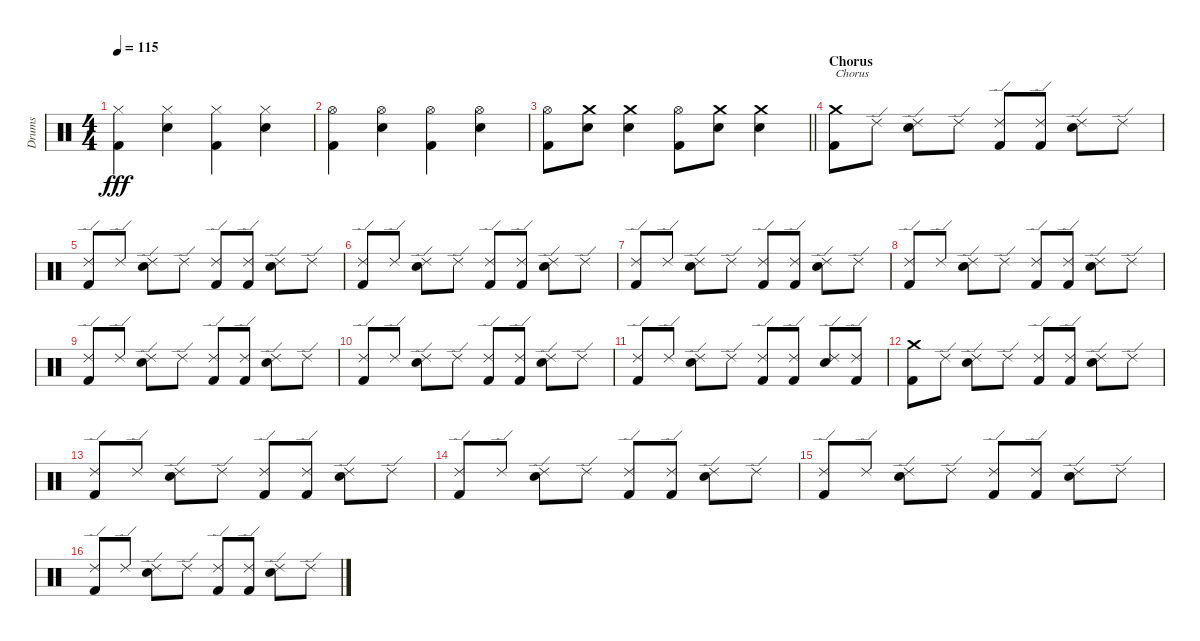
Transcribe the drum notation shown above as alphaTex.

\track ("Drums" "Drums") {instrument percussion}
\staff {score}
\articulation defaults
\ts (4 4)
\tempo 115
\clef neutral
\ks c
("Hi-Hat (closed)" "Kick (hit) 2").4{dy fff} ("Hi-Hat (closed)" "Snare (hit) 2").4 ("Hi-Hat (closed)" "Kick (hit) 2").4 ("Hi-Hat (closed)" "Snare (hit) 2").4 |
("Hi-Hat (open)" "Kick (hit) 2").4 ("Hi-Hat (open)" "Snare (hit) 2").4 ("Hi-Hat (open)" "Kick (hit) 2").4 ("Hi-Hat (open)" "Snare (hit) 2").4 |
\barLineRight lightlight
("Hi-Hat (open)" "Kick (hit) 2").8 ("Crash medium (hit)" "Snare (hit) 2").8 ("Crash medium (hit)" "Snare (hit) 2").4 ("Hi-Hat (open)" "Kick (hit) 2").8 ("Crash medium (hit)" "Snare (hit) 2").8 ("Crash medium (hit)" "Snare (hit) 2").4 |
\section ("" "Chorus")
("Crash medium (hit)" "Kick (hit) 2").8{txt "Chorus"} "Ride (edge) 2".8 ("Ride (edge) 2" "Snare (hit) 2").8 "Ride (edge) 2".8 ("Ride (edge) 2" "Kick (hit) 2").8 ("Ride (edge) 2" "Kick (hit) 2").8 ("Ride (edge) 2" "Snare (hit) 2").8 "Ride (edge) 2".8 |
("Ride (edge) 2" "Kick (hit) 2").8 "Ride (edge) 2".8 ("Ride (edge) 2" "Snare (hit) 2").8 "Ride (edge) 2".8 ("Ride (edge) 2" "Kick (hit) 2").8 ("Ride (edge) 2" "Kick (hit) 2").8 ("Ride (edge) 2" "Snare (hit) 2").8 "Ride (edge) 2".8 |
("Ride (edge) 2" "Kick (hit) 2").8 "Ride (edge) 2".8 ("Ride (edge) 2" "Snare (hit) 2").8 "Ride (edge) 2".8 ("Ride (edge) 2" "Kick (hit) 2").8 ("Ride (edge) 2" "Kick (hit) 2").8 ("Ride (edge) 2" "Snare (hit) 2").8 "Ride (edge) 2".8 |
("Ride (edge) 2" "Kick (hit) 2").8 "Ride (edge) 2".8 ("Ride (edge) 2" "Snare (hit) 2").8 "Ride (edge) 2".8 ("Ride (edge) 2" "Kick (hit) 2").8 ("Ride (edge) 2" "Kick (hit) 2").8 ("Ride (edge) 2" "Snare (hit) 2").8 "Ride (edge) 2".8 |
("Ride (edge) 2" "Kick (hit) 2").8 "Ride (edge) 2".8 ("Ride (edge) 2" "Snare (hit) 2").8 "Ride (edge) 2".8 ("Ride (edge) 2" "Kick (hit) 2").8 ("Ride (edge) 2" "Kick (hit) 2").8 ("Ride (edge) 2" "Snare (hit) 2").8 "Ride (edge) 2".8 |
("Ride (edge) 2" "Kick (hit) 2").8 "Ride (edge) 2".8 ("Ride (edge) 2" "Snare (hit) 2").8 "Ride (edge) 2".8 ("Ride (edge) 2" "Kick (hit) 2").8 ("Ride (edge) 2" "Kick (hit) 2").8 ("Ride (edge) 2" "Snare (hit) 2").8 "Ride (edge) 2".8 |
("Ride (edge) 2" "Kick (hit) 2").8 "Ride (edge) 2".8 ("Ride (edge) 2" "Snare (hit) 2").8 "Ride (edge) 2".8 ("Ride (edge) 2" "Kick (hit) 2").8 ("Ride (edge) 2" "Kick (hit) 2").8 ("Ride (edge) 2" "Snare (hit) 2").8 "Ride (edge) 2".8 |
("Ride (edge) 2" "Kick (hit) 2").8 "Ride (edge) 2".8 ("Ride (edge) 2" "Snare (hit) 2").8 "Ride (edge) 2".8 ("Ride (edge) 2" "Kick (hit) 2").8 ("Ride (edge) 2" "Kick (hit) 2").8 ("Ride (edge) 2" "Snare (hit) 2").8 ("Ride (edge) 2" "Kick (hit) 2").8 |
("Crash medium (hit)" "Kick (hit) 2").8 "Ride (edge) 2".8 ("Ride (edge) 2" "Snare (hit) 2").8 "Ride (edge) 2".8 ("Ride (edge) 2" "Kick (hit) 2").8 ("Ride (edge) 2" "Kick (hit) 2").8 ("Ride (edge) 2" "Snare (hit) 2").8 "Ride (edge) 2".8 |
("Ride (edge) 2" "Kick (hit) 2").8 "Ride (edge) 2".8 ("Ride (edge) 2" "Snare (hit) 2").8 "Ride (edge) 2".8 ("Ride (edge) 2" "Kick (hit) 2").8 ("Ride (edge) 2" "Kick (hit) 2").8 ("Ride (edge) 2" "Snare (hit) 2").8 "Ride (edge) 2".8 |
("Ride (edge) 2" "Kick (hit) 2").8 "Ride (edge) 2".8 ("Ride (edge) 2" "Snare (hit) 2").8 "Ride (edge) 2".8 ("Ride (edge) 2" "Kick (hit) 2").8 ("Ride (edge) 2" "Kick (hit) 2").8 ("Ride (edge) 2" "Snare (hit) 2").8 "Ride (edge) 2".8 |
("Ride (edge) 2" "Kick (hit) 2").8 "Ride (edge) 2".8 ("Ride (edge) 2" "Snare (hit) 2").8 "Ride (edge) 2".8 ("Ride (edge) 2" "Kick (hit) 2").8 ("Ride (edge) 2" "Kick (hit) 2").8 ("Ride (edge) 2" "Snare (hit) 2").8 "Ride (edge) 2".8 |
("Ride (edge) 2" "Kick (hit) 2").8 "Ride (edge) 2".8 ("Ride (edge) 2" "Snare (hit) 2").8 "Ride (edge) 2".8 ("Ride (edge) 2" "Kick (hit) 2").8 ("Ride (edge) 2" "Kick (hit) 2").8 ("Ride (edge) 2" "Snare (hit) 2").8 "Ride (edge) 2".8
